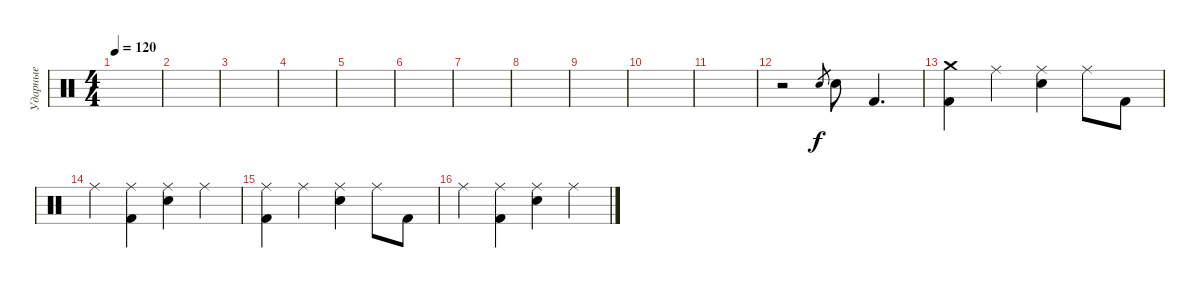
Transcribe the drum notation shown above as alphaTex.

\track ("Ударные" "Ударные") {instrument percussion}
\staff {score}
\articulation defaults
\ts (4 4)
\tempo 120
\clef neutral
\ks c
|
|
|
|
|
|
|
|
|
|
|
r.2 "Electric Snare (hit)".8{gr} "Electric Snare (hit)".8 "Kick (hit) 2".4{d} |
("Crash medium (hit)" "Kick (hit) 2").4 "Ride (middle)".4 ("Ride (middle)" "Electric Snare (hit)").4 "Ride (middle)".8 "Kick (hit) 2".8 |
"Ride (middle)".4 ("Ride (middle)" "Kick (hit) 2").4 ("Ride (middle)" "Electric Snare (hit)").4 "Ride (middle)".4 |
("Ride (middle)" "Kick (hit) 2").4 "Ride (middle)".4 ("Ride (middle)" "Electric Snare (hit)").4 "Ride (middle)".8 "Kick (hit) 2".8 |
"Ride (middle)".4 ("Ride (middle)" "Kick (hit) 2").4 ("Ride (middle)" "Electric Snare (hit)").4 "Ride (middle)".4
